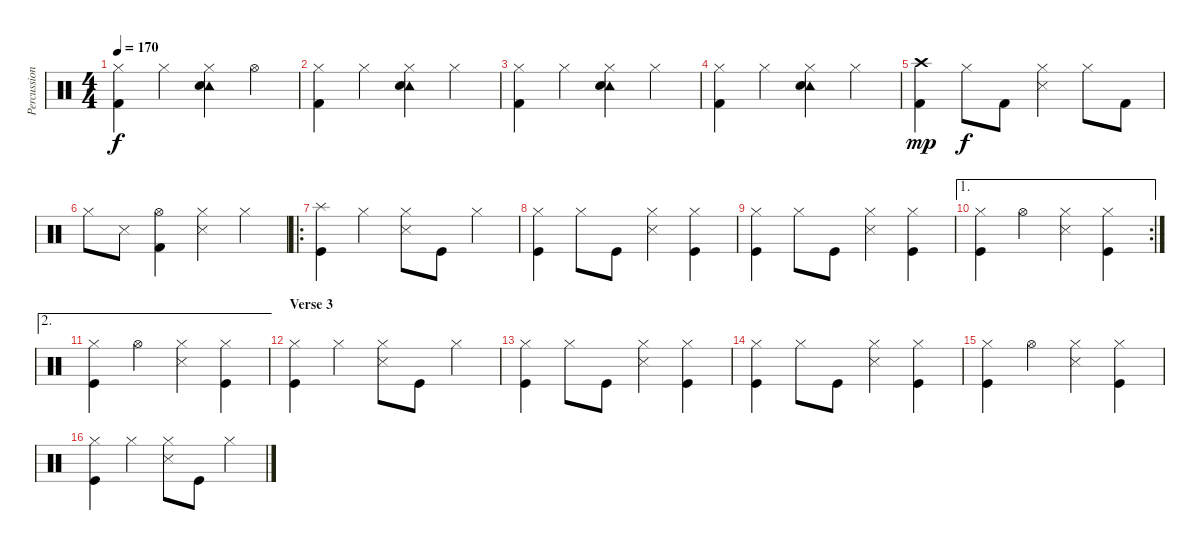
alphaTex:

\track ("Percussion" "Percussion") {instrument percussion}
\staff {score}
\articulation defaults
\ts (4 4)
\tempo 170
\clef neutral
\ks c
("Hi-Hat (closed)" "Kick (hit) 2").4{dy f} "Hi-Hat (closed)".4 ("Tambourine (hit)" "Hi-Hat (closed)" "Electric Snare (hit)").4 "Hi-Hat (open)".4 |
("Hi-Hat (closed)" "Kick (hit) 2").4 "Hi-Hat (closed)".4 ("Tambourine (hit)" "Hi-Hat (closed)" "Electric Snare (hit)").4 "Hi-Hat (closed)".4 |
("Hi-Hat (closed)" "Kick (hit) 2").4 "Hi-Hat (closed)".4 ("Tambourine (hit)" "Hi-Hat (closed)" "Electric Snare (hit)").4 "Hi-Hat (closed)".4 |
("Hi-Hat (closed)" "Kick (hit) 2").4 "Hi-Hat (closed)".4 ("Tambourine (hit)" "Hi-Hat (closed)" "Electric Snare (hit)").4 "Hi-Hat (closed)".4 |
("Crash high (hit)" "Kick (hit) 2").4{dy mp} "Hi-Hat (closed)".8{dy f} "Kick (hit) 2".8 ("Hi-Hat (closed)" "Snare (side stick) 3").4 "Hi-Hat (closed)".8 "Kick (hit) 2".8 |
"Hi-Hat (closed)".8 "Snare (side stick) 3".8 ("Hi-Hat (open)" "Kick (hit) 2").4 ("Hi-Hat (closed)" "Snare (side stick) 3").4 "Hi-Hat (closed)".4 |
\ro
\section ("" "")
("Splash (hit)" "Kick (hit)").4 "Hi-Hat (closed)".4 ("Hi-Hat (closed)" "Snare (side stick) 3").8 "Kick (hit)".8 "Hi-Hat (closed)".4 |
("Hi-Hat (closed)" "Kick (hit)").4 "Hi-Hat (closed)".8 "Kick (hit)".8 ("Hi-Hat (closed)" "Snare (side stick) 3").4 ("Hi-Hat (closed)" "Kick (hit)").4 |
("Hi-Hat (closed)" "Kick (hit)").4 "Hi-Hat (closed)".8 "Kick (hit)".8 ("Hi-Hat (closed)" "Snare (side stick) 3").4 ("Hi-Hat (closed)" "Kick (hit)").4 |
\ae 1
\rc 2
("Hi-Hat (closed)" "Kick (hit)").4 "Hi-Hat (open)".4 ("Hi-Hat (closed)" "Snare (side stick) 3").4 ("Hi-Hat (closed)" "Kick (hit)").4 |
\ae 2
("Hi-Hat (closed)" "Kick (hit)").4 "Hi-Hat (open)".4 ("Hi-Hat (closed)" "Snare (side stick) 3").4 ("Hi-Hat (closed)" "Kick (hit)").4 |
\section ("" "Verse 3")
("Hi-Hat (closed)" "Kick (hit)").4 "Hi-Hat (closed)".4 ("Hi-Hat (closed)" "Snare (side stick) 3").8 "Kick (hit)".8 "Hi-Hat (closed)".4 |
("Hi-Hat (closed)" "Kick (hit)").4 "Hi-Hat (closed)".8 "Kick (hit)".8 ("Hi-Hat (closed)" "Snare (side stick) 3").4 ("Hi-Hat (closed)" "Kick (hit)").4 |
("Hi-Hat (closed)" "Kick (hit)").4 "Hi-Hat (closed)".8 "Kick (hit)".8 ("Hi-Hat (closed)" "Snare (side stick) 3").4 ("Hi-Hat (closed)" "Kick (hit)").4 |
("Hi-Hat (closed)" "Kick (hit)").4 "Hi-Hat (open)".4 ("Hi-Hat (closed)" "Snare (side stick) 3").4 ("Hi-Hat (closed)" "Kick (hit)").4 |
("Hi-Hat (closed)" "Kick (hit)").4 "Hi-Hat (closed)".4 ("Hi-Hat (closed)" "Snare (side stick) 3").8 "Kick (hit)".8 "Hi-Hat (closed)".4
